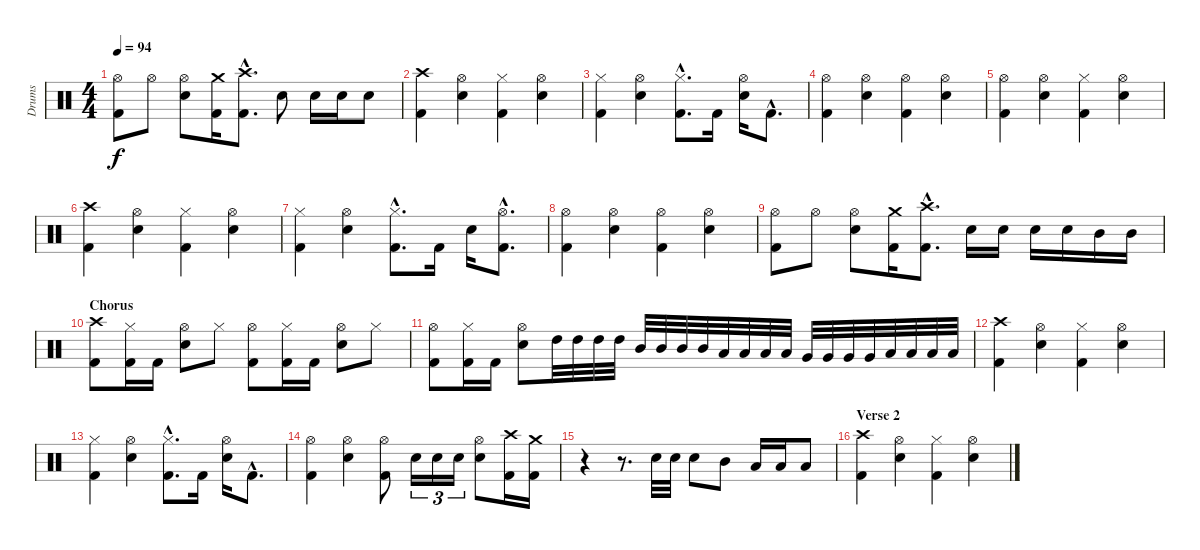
\track ("Drums" "Drums") {instrument percussion}
\staff {score}
\articulation defaults
\ts (4 4)
\tempo 94
\clef neutral
\ks c
("Hi-Hat (open)" "Kick (hit) 2").8{dy f} "Hi-Hat (open)".8 ("Hi-Hat (open)" "Snare (hit) 2").8 ("Crash medium (hit)" "Kick (hit) 2").16 ("Crash high (hit)"{hac} "Kick (hit) 2"{hac}).8{d} "Snare (hit) 2".8 "Snare (hit) 2".16 "Snare (hit) 2".16 "Snare (hit) 2".8 |
("Crash high (hit)" "Kick (hit) 2").4 ("Hi-Hat (open)" "Snare (hit) 2").4 ("Hi-Hat (closed)" "Kick (hit) 2").4 ("Hi-Hat (open)" "Snare (hit) 2").4 |
("Hi-Hat (closed)" "Kick (hit) 2").4 ("Hi-Hat (open)" "Snare (hit) 2").4 ("Hi-Hat (closed)"{hac} "Kick (hit) 2"{hac}).8{d} "Kick (hit) 2".16 ("Hi-Hat (open)" "Snare (hit) 2").16 "Kick (hit) 2"{hac}.8{d} |
("Hi-Hat (open)" "Kick (hit) 2").4 ("Hi-Hat (open)" "Snare (hit) 2").4 ("Hi-Hat (open)" "Kick (hit) 2").4 ("Hi-Hat (open)" "Snare (hit) 2").4 |
("Hi-Hat (open)" "Kick (hit) 2").4 ("Hi-Hat (open)" "Snare (hit) 2").4 ("Hi-Hat (closed)" "Kick (hit) 2").4 ("Hi-Hat (open)" "Snare (hit) 2").4 |
("Crash high (hit)" "Kick (hit) 2").4 ("Hi-Hat (open)" "Snare (hit) 2").4 ("Hi-Hat (closed)" "Kick (hit) 2").4 ("Hi-Hat (open)" "Snare (hit) 2").4 |
("Hi-Hat (closed)" "Kick (hit) 2").4 ("Hi-Hat (open)" "Snare (hit) 2").4 ("Hi-Hat (closed)"{hac} "Kick (hit) 2"{hac}).8{d} "Kick (hit) 2".16 "Snare (hit) 2".16 ("Hi-Hat (open)"{hac} "Kick (hit) 2"{hac}).8{d} |
("Hi-Hat (open)" "Kick (hit) 2").4 ("Hi-Hat (open)" "Snare (hit) 2").4 ("Hi-Hat (open)" "Kick (hit) 2").4 ("Hi-Hat (open)" "Snare (hit) 2").4 |
("Hi-Hat (open)" "Kick (hit) 2").8 "Hi-Hat (open)".8 ("Hi-Hat (open)" "Snare (hit) 2").8 ("Crash medium (hit)" "Kick (hit) 2").16 ("Crash high (hit)"{hac} "Kick (hit) 2"{hac}).8{d} "Snare (hit) 2".16 "Snare (hit) 2".16 "Snare (hit) 2".16 "Snare (hit) 2".16 "Mid Tom (hit)".16 "Mid Tom (hit)".16 |
\section ("" "Chorus")
("Crash high (hit)" "Kick (hit) 2").8 ("Hi-Hat (closed)" "Kick (hit) 2").16 "Kick (hit) 2".16 ("Hi-Hat (open)" "Snare (hit) 2").8 "Hi-Hat (closed)".8 ("Hi-Hat (open)" "Kick (hit) 2").8 ("Hi-Hat (closed)" "Kick (hit) 2").16 "Kick (hit) 2".16 ("Hi-Hat (open)" "Snare (hit) 2").8 "Hi-Hat (closed)".8 |
("Hi-Hat (open)" "Kick (hit) 2").8 ("Hi-Hat (closed)" "Kick (hit) 2").16 "Kick (hit) 2".16 ("Hi-Hat (open)" "Snare (hit) 2").8 "High Tom (hit)".32 "High Tom (hit)".32 "High Tom (hit)".32 "High Tom (hit)".32 "Mid Tom (hit)".32 "Mid Tom (hit)".32 "Mid Tom (hit)".32 "Mid Tom (hit)".32 "Low Tom (hit)".32 "Low Tom (hit)".32 "Low Tom (hit)".32 "Low Tom (hit)".32 "Very Low Tom (hit)".32 "Very Low Tom (hit)".32 "Very Low Tom (hit)".32 "Very Low Tom (hit)".32 "Low Floor Tom (hit)".32 "Low Floor Tom (hit)".32 "Low Floor Tom (hit)".32 "Low Floor Tom (hit)".32 |
("Crash high (hit)" "Kick (hit) 2").4 ("Hi-Hat (open)" "Snare (hit) 2").4 ("Hi-Hat (closed)" "Kick (hit) 2").4 ("Hi-Hat (open)" "Snare (hit) 2").4 |
("Hi-Hat (closed)" "Kick (hit) 2").4 ("Hi-Hat (open)" "Snare (hit) 2").4 ("Hi-Hat (closed)"{hac} "Kick (hit) 2"{hac}).8{d} "Kick (hit) 2".16 ("Hi-Hat (open)" "Snare (hit) 2").16 "Kick (hit) 2"{hac}.8{d} |
("Hi-Hat (open)" "Kick (hit) 2").4 ("Hi-Hat (open)" "Snare (hit) 2").4 ("Hi-Hat (open)" "Kick (hit) 2").8 "Snare (hit) 2".16{tu (3 2)} "Snare (hit) 2".16{tu (3 2)} "Snare (hit) 2".16{tu (3 2)} ("Hi-Hat (open)" "Snare (hit) 2").8 ("Crash high (hit)" "Kick (hit) 2").16 ("Crash medium (hit)" "Kick (hit) 2").16 |
r.4 r.8{d} "Snare (hit) 2".32 "Snare (hit) 2".32 "Snare (hit) 2".8 "Mid Tom (hit)".8 "Low Tom (hit)".16 "Low Tom (hit)".16 "Low Tom (hit)".8 |
\section ("" "Verse 2")
("Crash high (hit)" "Kick (hit) 2").4 ("Hi-Hat (open)" "Snare (hit) 2").4 ("Hi-Hat (closed)" "Kick (hit) 2").4 ("Hi-Hat (open)" "Snare (hit) 2").4
